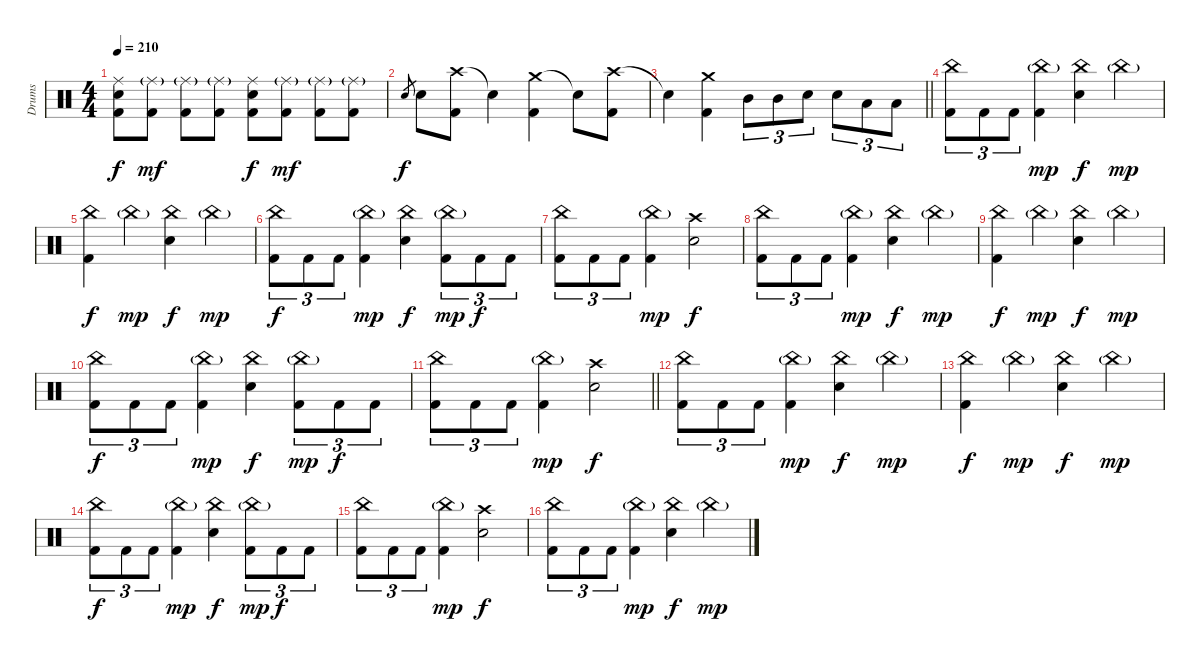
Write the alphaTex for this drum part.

\track ("Drums" "Drums") {instrument percussion}
\staff {score}
\articulation defaults
\ts (4 4)
\tempo 210
\clef neutral
\ks c
("Ride (middle)" "Electric Snare (hit)" "Kick (hit) 2").8{dy f} ("Ride (middle)"{g} "Kick (hit) 2").8{dy mf} ("Ride (middle)"{g} "Kick (hit) 2").8 ("Ride (middle)"{g} "Kick (hit) 2").8 ("Ride (middle)" "Electric Snare (hit)" "Kick (hit) 2").8{dy f} ("Ride (middle)"{g} "Kick (hit) 2").8{dy mf} ("Ride (middle)"{g} "Kick (hit) 2").8 ("Ride (middle)"{g} "Kick (hit) 2").8 |
"Electric Snare (hit)".8{gr dy f} "Electric Snare (hit)".8 ("Crash high (hit)" "Kick (hit) 2").8 "Snare (hit)"{t}.4 ("Crash medium (hit)" "Kick (hit) 2").4 "Snare (hit)"{t}.8 ("Crash high (hit)" "Kick (hit) 2").8 |
\barLineRight lightlight "Snare (hit)"{t}.4
("Crash medium (hit)" "Kick (hit) 2").4 "Mid Tom (hit)".8{tu (3 2)} "Mid Tom (hit)".8{tu (3 2)} "Electric Snare (hit)".8{tu (3 2)} "Electric Snare (hit)".8{tu (3 2)} "Low Tom (hit)".8{tu (3 2)} "Low Tom (hit)".8{tu (3 2)} |
("China (hit)" "Kick (hit) 2").8{tu (3 2)} "Kick (hit) 2".8{tu (3 2)} "Kick (hit) 2".8{tu (3 2)} ("China (hit)"{g} "Kick (hit) 2").4{dy mp} ("China (hit)" "Electric Snare (hit)").4{dy f} "China (hit)"{g}.4{dy mp} |
("China (hit)" "Kick (hit) 2").4{dy f} "China (hit)"{g}.4{dy mp} ("China (hit)" "Electric Snare (hit)").4{dy f} "China (hit)"{g}.4{dy mp} |
("China (hit)" "Kick (hit) 2").8{tu (3 2) dy f} "Kick (hit) 2".8{tu (3 2)} "Kick (hit) 2".8{tu (3 2)} ("China (hit)"{g} "Kick (hit) 2").4{dy mp} ("China (hit)" "Electric Snare (hit)").4{dy f} ("China (hit)"{g} "Kick (hit) 2").8{tu (3 2) dy mp} "Kick (hit) 2".8{tu (3 2) dy f} "Kick (hit) 2".8{tu (3 2)} |
("China (hit)" "Kick (hit) 2").8{tu (3 2)} "Kick (hit) 2".8{tu (3 2)} "Kick (hit) 2".8{tu (3 2)} ("China (hit)"{g} "Kick (hit) 2").4{dy mp} ("Crash high (hit)" "Electric Snare (hit)").2{dy f} |
("China (hit)" "Kick (hit) 2").8{tu (3 2)} "Kick (hit) 2".8{tu (3 2)} "Kick (hit) 2".8{tu (3 2)} ("China (hit)"{g} "Kick (hit) 2").4{dy mp} ("China (hit)" "Electric Snare (hit)").4{dy f} "China (hit)"{g}.4{dy mp} |
("China (hit)" "Kick (hit) 2").4{dy f} "China (hit)"{g}.4{dy mp} ("China (hit)" "Electric Snare (hit)").4{dy f} "China (hit)"{g}.4{dy mp} |
("China (hit)" "Kick (hit) 2").8{tu (3 2) dy f} "Kick (hit) 2".8{tu (3 2)} "Kick (hit) 2".8{tu (3 2)} ("China (hit)"{g} "Kick (hit) 2").4{dy mp} ("China (hit)" "Electric Snare (hit)").4{dy f} ("China (hit)"{g} "Kick (hit) 2").8{tu (3 2) dy mp} "Kick (hit) 2".8{tu (3 2) dy f} "Kick (hit) 2".8{tu (3 2)} |
\barLineRight lightlight
("China (hit)" "Kick (hit) 2").8{tu (3 2)} "Kick (hit) 2".8{tu (3 2)} "Kick (hit) 2".8{tu (3 2)} ("China (hit)"{g} "Kick (hit) 2").4{dy mp} ("Crash high (hit)" "Electric Snare (hit)").2{dy f} |
("China (hit)" "Kick (hit) 2").8{tu (3 2)} "Kick (hit) 2".8{tu (3 2)} "Kick (hit) 2".8{tu (3 2)} ("China (hit)"{g} "Kick (hit) 2").4{dy mp} ("China (hit)" "Electric Snare (hit)").4{dy f} "China (hit)"{g}.4{dy mp} |
("China (hit)" "Kick (hit) 2").4{dy f} "China (hit)"{g}.4{dy mp} ("China (hit)" "Electric Snare (hit)").4{dy f} "China (hit)"{g}.4{dy mp} |
("China (hit)" "Kick (hit) 2").8{tu (3 2) dy f} "Kick (hit) 2".8{tu (3 2)} "Kick (hit) 2".8{tu (3 2)} ("China (hit)"{g} "Kick (hit) 2").4{dy mp} ("China (hit)" "Electric Snare (hit)").4{dy f} ("China (hit)"{g} "Kick (hit) 2").8{tu (3 2) dy mp} "Kick (hit) 2".8{tu (3 2) dy f} "Kick (hit) 2".8{tu (3 2)} |
("China (hit)" "Kick (hit) 2").8{tu (3 2)} "Kick (hit) 2".8{tu (3 2)} "Kick (hit) 2".8{tu (3 2)} ("China (hit)"{g} "Kick (hit) 2").4{dy mp} ("Crash high (hit)" "Electric Snare (hit)").2{dy f} |
("China (hit)" "Kick (hit) 2").8{tu (3 2)} "Kick (hit) 2".8{tu (3 2)} "Kick (hit) 2".8{tu (3 2)} ("China (hit)"{g} "Kick (hit) 2").4{dy mp} ("China (hit)" "Electric Snare (hit)").4{dy f} "China (hit)"{g}.4{dy mp}
